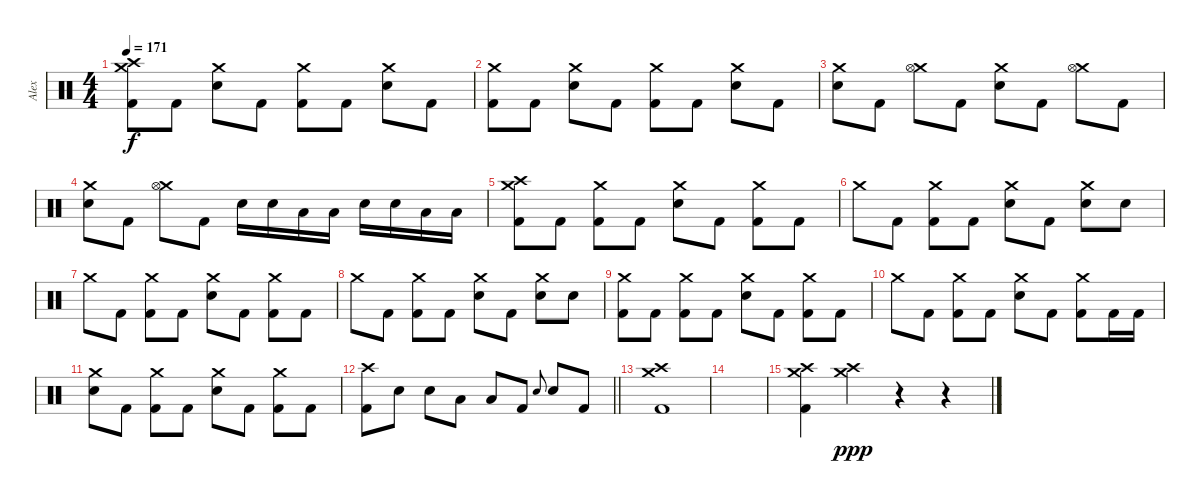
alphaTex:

\track ("Alex" "Alex") {instrument percussion}
\staff
\articulation defaults
\ts (4 4)
\tempo 171
\clef neutral
\ks c
("Crash medium (hit)" "Crash high (hit)" "Kick (hit) 2").8{dy f} "Kick (hit) 2".8 ("Crash medium (hit)" "Electric Snare (hit)").8 "Kick (hit) 2".8 ("Crash medium (hit)" "Kick (hit) 2").8 "Kick (hit) 2".8 ("Crash medium (hit)" "Electric Snare (hit)").8 "Kick (hit) 2".8 |
("Crash medium (hit)" "Kick (hit) 2").8 "Kick (hit) 2".8 ("Crash medium (hit)" "Electric Snare (hit)").8 "Kick (hit) 2".8 ("Crash medium (hit)" "Kick (hit) 2").8 "Kick (hit) 2".8 ("Crash medium (hit)" "Electric Snare (hit)").8 "Kick (hit) 2".8 |
("Crash medium (hit)" "Electric Snare (hit)").8 "Kick (hit) 2".8 ("Crash medium (hit)" "Hi-Hat (open)").8 "Kick (hit) 2".8 ("Crash medium (hit)" "Electric Snare (hit)").8 "Kick (hit) 2".8 ("Crash medium (hit)" "Hi-Hat (open)").8 "Kick (hit) 2".8 |
("Crash medium (hit)" "Electric Snare (hit)").8 "Kick (hit) 2".8 ("Crash medium (hit)" "Hi-Hat (open)").8 "Kick (hit) 2".8 "Electric Snare (hit)".16 "Electric Snare (hit)".16 "Low Tom (hit)".16 "Low Tom (hit)".16 "Electric Snare (hit)".16 "Electric Snare (hit)".16 "Low Floor Tom (hit)".16 "Low Floor Tom (hit)".16 |
("Crash medium (hit)" "Crash high (hit)" "Kick (hit) 2").8 "Kick (hit) 2".8 ("Crash medium (hit)" "Kick (hit) 2").8 "Kick (hit) 2".8 ("Crash medium (hit)" "Electric Snare (hit)").8 "Kick (hit) 2".8 ("Crash medium (hit)" "Kick (hit) 2").8 "Kick (hit) 2".8 |
"Crash medium (hit)".8 "Kick (hit) 2".8 ("Crash medium (hit)" "Kick (hit) 2").8 "Kick (hit) 2".8 ("Crash medium (hit)" "Electric Snare (hit)").8 "Kick (hit) 2".8 ("Crash medium (hit)" "Electric Snare (hit)").8 "Electric Snare (hit)".8 |
"Crash medium (hit)".8 "Kick (hit) 2".8 ("Crash medium (hit)" "Kick (hit) 2").8 "Kick (hit) 2".8 ("Crash medium (hit)" "Electric Snare (hit)").8 "Kick (hit) 2".8 ("Crash medium (hit)" "Kick (hit) 2").8 "Kick (hit) 2".8 |
"Crash medium (hit)".8 "Kick (hit) 2".8 ("Crash medium (hit)" "Kick (hit) 2").8 "Kick (hit) 2".8 ("Crash medium (hit)" "Electric Snare (hit)").8 "Kick (hit) 2".8 ("Crash medium (hit)" "Electric Snare (hit)").8 "Electric Snare (hit)".8 |
("Crash medium (hit)" "Kick (hit) 2").8 "Kick (hit) 2".8 ("Crash medium (hit)" "Kick (hit) 2").8 "Kick (hit) 2".8 ("Crash medium (hit)" "Electric Snare (hit)").8 "Kick (hit) 2".8 ("Crash medium (hit)" "Kick (hit) 2").8 "Kick (hit) 2".8 |
"Crash medium (hit)".8 "Kick (hit) 2".8 ("Crash medium (hit)" "Kick (hit) 2").8 "Kick (hit) 2".8 ("Crash medium (hit)" "Electric Snare (hit)").8 "Kick (hit) 2".8 ("Crash medium (hit)" "Kick (hit) 2").8 "Kick (hit) 2".16 "Kick (hit) 2".16 |
("Crash medium (hit)" "Electric Snare (hit)").8 "Kick (hit) 2".8 ("Crash medium (hit)" "Kick (hit) 2").8 "Kick (hit) 2".8 ("Crash medium (hit)" "Electric Snare (hit)").8 "Kick (hit) 2".8 ("Crash medium (hit)" "Kick (hit) 2").8 "Kick (hit) 2".8 |
\barLineRight lightlight
("Crash high (hit)" "Kick (hit) 2").8 "Electric Snare (hit)".8 "Electric Snare (hit)".8 "Low Tom (hit)".8 "Low Floor Tom (hit)".8 "Kick (hit) 2".8 "Electric Snare (hit)".8{gr onbeat} "Electric Snare (hit)".8 "Kick (hit) 2".8 |
("Crash medium (hit)" "Crash high (hit)" "Kick (hit) 2").1 |
|
("Crash medium (hit)" "Crash high (hit)" "Kick (hit) 2").4 ("Crash medium (hit)" "Crash high (hit)").4{dy ppp} r.4 r.4
